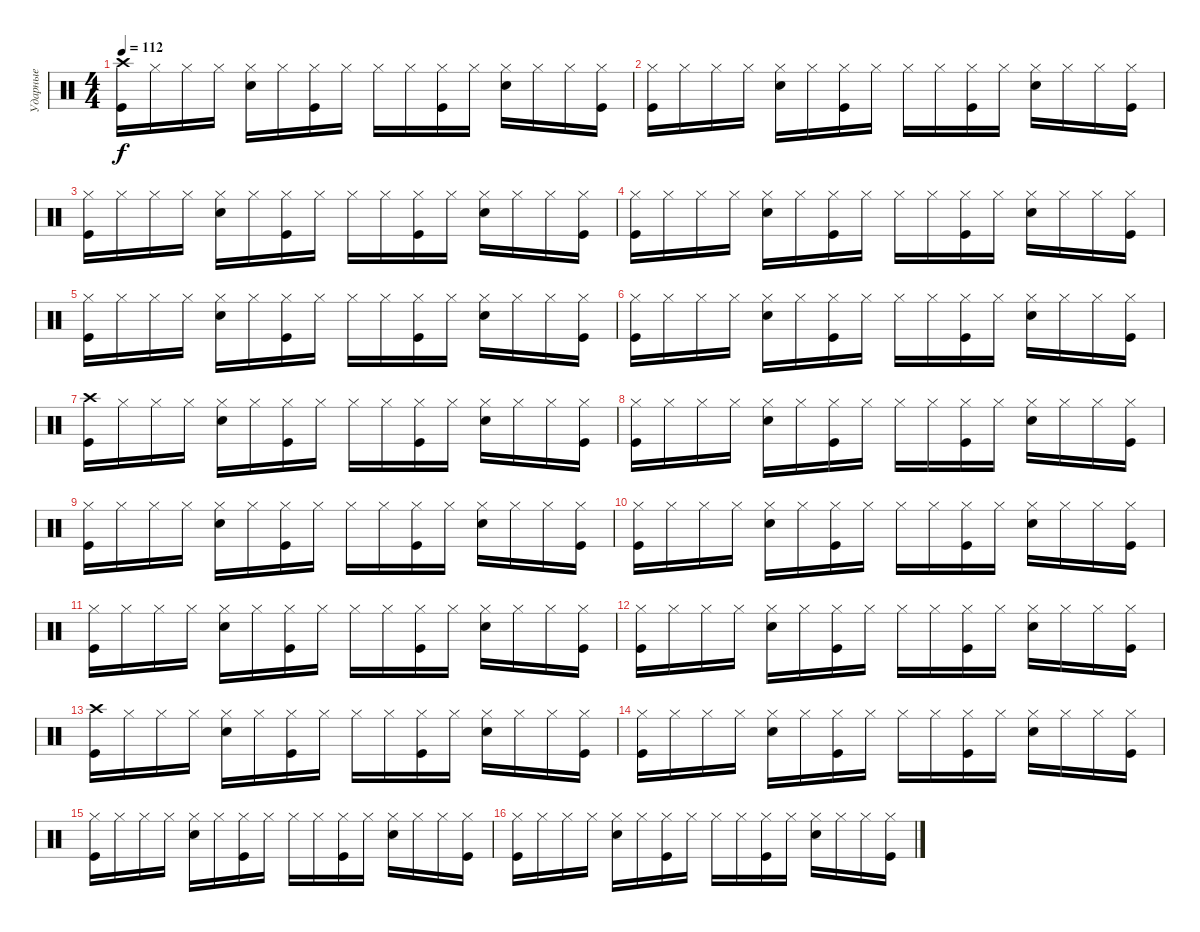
\track ("Ударные" "Ударные") {instrument percussion}
\staff {score}
\articulation defaults
\ts (4 4)
\tempo 112
\clef neutral
\ks c
("Crash high (hit)" "Kick (hit)").16{dy f} "Hi-Hat (closed)".16 "Hi-Hat (closed)".16 "Hi-Hat (closed)".16 ("Hi-Hat (closed)" "Electric Snare (hit)").16 "Hi-Hat (closed)".16 ("Hi-Hat (closed)" "Kick (hit)").16 "Hi-Hat (closed)".16 "Hi-Hat (closed)".16 "Hi-Hat (closed)".16 ("Hi-Hat (closed)" "Kick (hit)").16 "Hi-Hat (closed)".16 ("Hi-Hat (closed)" "Electric Snare (hit)").16 "Hi-Hat (closed)".16 "Hi-Hat (closed)".16 ("Hi-Hat (closed)" "Kick (hit)").16 |
("Hi-Hat (closed)" "Kick (hit)").16 "Hi-Hat (closed)".16 "Hi-Hat (closed)".16 "Hi-Hat (closed)".16 ("Hi-Hat (closed)" "Electric Snare (hit)").16 "Hi-Hat (closed)".16 ("Hi-Hat (closed)" "Kick (hit)").16 "Hi-Hat (closed)".16 "Hi-Hat (closed)".16 "Hi-Hat (closed)".16 ("Hi-Hat (closed)" "Kick (hit)").16 "Hi-Hat (closed)".16 ("Hi-Hat (closed)" "Electric Snare (hit)").16 "Hi-Hat (closed)".16 "Hi-Hat (closed)".16 ("Hi-Hat (closed)" "Kick (hit)").16 |
("Hi-Hat (closed)" "Kick (hit)").16 "Hi-Hat (closed)".16 "Hi-Hat (closed)".16 "Hi-Hat (closed)".16 ("Hi-Hat (closed)" "Electric Snare (hit)").16 "Hi-Hat (closed)".16 ("Hi-Hat (closed)" "Kick (hit)").16 "Hi-Hat (closed)".16 "Hi-Hat (closed)".16 "Hi-Hat (closed)".16 ("Hi-Hat (closed)" "Kick (hit)").16 "Hi-Hat (closed)".16 ("Hi-Hat (closed)" "Electric Snare (hit)").16 "Hi-Hat (closed)".16 "Hi-Hat (closed)".16 ("Hi-Hat (closed)" "Kick (hit)").16 |
("Hi-Hat (closed)" "Kick (hit)").16 "Hi-Hat (closed)".16 "Hi-Hat (closed)".16 "Hi-Hat (closed)".16 ("Hi-Hat (closed)" "Electric Snare (hit)").16 "Hi-Hat (closed)".16 ("Hi-Hat (closed)" "Kick (hit)").16 "Hi-Hat (closed)".16 "Hi-Hat (closed)".16 "Hi-Hat (closed)".16 ("Hi-Hat (closed)" "Kick (hit)").16 "Hi-Hat (closed)".16 ("Hi-Hat (closed)" "Electric Snare (hit)").16 "Hi-Hat (closed)".16 "Hi-Hat (closed)".16 ("Hi-Hat (closed)" "Kick (hit)").16 |
("Hi-Hat (closed)" "Kick (hit)").16 "Hi-Hat (closed)".16 "Hi-Hat (closed)".16 "Hi-Hat (closed)".16 ("Hi-Hat (closed)" "Electric Snare (hit)").16 "Hi-Hat (closed)".16 ("Hi-Hat (closed)" "Kick (hit)").16 "Hi-Hat (closed)".16 "Hi-Hat (closed)".16 "Hi-Hat (closed)".16 ("Hi-Hat (closed)" "Kick (hit)").16 "Hi-Hat (closed)".16 ("Hi-Hat (closed)" "Electric Snare (hit)").16 "Hi-Hat (closed)".16 "Hi-Hat (closed)".16 ("Hi-Hat (closed)" "Kick (hit)").16 |
("Hi-Hat (closed)" "Kick (hit)").16 "Hi-Hat (closed)".16 "Hi-Hat (closed)".16 "Hi-Hat (closed)".16 ("Hi-Hat (closed)" "Electric Snare (hit)").16 "Hi-Hat (closed)".16 ("Hi-Hat (closed)" "Kick (hit)").16 "Hi-Hat (closed)".16 "Hi-Hat (closed)".16 "Hi-Hat (closed)".16 ("Hi-Hat (closed)" "Kick (hit)").16 "Hi-Hat (closed)".16 ("Hi-Hat (closed)" "Electric Snare (hit)").16 "Hi-Hat (closed)".16 "Hi-Hat (closed)".16 ("Hi-Hat (closed)" "Kick (hit)").16 |
("Crash high (hit)" "Kick (hit)").16 "Hi-Hat (closed)".16 "Hi-Hat (closed)".16 "Hi-Hat (closed)".16 ("Hi-Hat (closed)" "Electric Snare (hit)").16 "Hi-Hat (closed)".16 ("Hi-Hat (closed)" "Kick (hit)").16 "Hi-Hat (closed)".16 "Hi-Hat (closed)".16 "Hi-Hat (closed)".16 ("Hi-Hat (closed)" "Kick (hit)").16 "Hi-Hat (closed)".16 ("Hi-Hat (closed)" "Electric Snare (hit)").16 "Hi-Hat (closed)".16 "Hi-Hat (closed)".16 ("Hi-Hat (closed)" "Kick (hit)").16 |
("Hi-Hat (closed)" "Kick (hit)").16 "Hi-Hat (closed)".16 "Hi-Hat (closed)".16 "Hi-Hat (closed)".16 ("Hi-Hat (closed)" "Electric Snare (hit)").16 "Hi-Hat (closed)".16 ("Hi-Hat (closed)" "Kick (hit)").16 "Hi-Hat (closed)".16 "Hi-Hat (closed)".16 "Hi-Hat (closed)".16 ("Hi-Hat (closed)" "Kick (hit)").16 "Hi-Hat (closed)".16 ("Hi-Hat (closed)" "Electric Snare (hit)").16 "Hi-Hat (closed)".16 "Hi-Hat (closed)".16 ("Hi-Hat (closed)" "Kick (hit)").16 |
("Hi-Hat (closed)" "Kick (hit)").16 "Hi-Hat (closed)".16 "Hi-Hat (closed)".16 "Hi-Hat (closed)".16 ("Hi-Hat (closed)" "Electric Snare (hit)").16 "Hi-Hat (closed)".16 ("Hi-Hat (closed)" "Kick (hit)").16 "Hi-Hat (closed)".16 "Hi-Hat (closed)".16 "Hi-Hat (closed)".16 ("Hi-Hat (closed)" "Kick (hit)").16 "Hi-Hat (closed)".16 ("Hi-Hat (closed)" "Electric Snare (hit)").16 "Hi-Hat (closed)".16 "Hi-Hat (closed)".16 ("Hi-Hat (closed)" "Kick (hit)").16 |
("Hi-Hat (closed)" "Kick (hit)").16 "Hi-Hat (closed)".16 "Hi-Hat (closed)".16 "Hi-Hat (closed)".16 ("Hi-Hat (closed)" "Electric Snare (hit)").16 "Hi-Hat (closed)".16 ("Hi-Hat (closed)" "Kick (hit)").16 "Hi-Hat (closed)".16 "Hi-Hat (closed)".16 "Hi-Hat (closed)".16 ("Hi-Hat (closed)" "Kick (hit)").16 "Hi-Hat (closed)".16 ("Hi-Hat (closed)" "Electric Snare (hit)").16 "Hi-Hat (closed)".16 "Hi-Hat (closed)".16 ("Hi-Hat (closed)" "Kick (hit)").16 |
("Hi-Hat (closed)" "Kick (hit)").16 "Hi-Hat (closed)".16 "Hi-Hat (closed)".16 "Hi-Hat (closed)".16 ("Hi-Hat (closed)" "Electric Snare (hit)").16 "Hi-Hat (closed)".16 ("Hi-Hat (closed)" "Kick (hit)").16 "Hi-Hat (closed)".16 "Hi-Hat (closed)".16 "Hi-Hat (closed)".16 ("Hi-Hat (closed)" "Kick (hit)").16 "Hi-Hat (closed)".16 ("Hi-Hat (closed)" "Electric Snare (hit)").16 "Hi-Hat (closed)".16 "Hi-Hat (closed)".16 ("Hi-Hat (closed)" "Kick (hit)").16 |
("Hi-Hat (closed)" "Kick (hit)").16 "Hi-Hat (closed)".16 "Hi-Hat (closed)".16 "Hi-Hat (closed)".16 ("Hi-Hat (closed)" "Electric Snare (hit)").16 "Hi-Hat (closed)".16 ("Hi-Hat (closed)" "Kick (hit)").16 "Hi-Hat (closed)".16 "Hi-Hat (closed)".16 "Hi-Hat (closed)".16 ("Hi-Hat (closed)" "Kick (hit)").16 "Hi-Hat (closed)".16 ("Hi-Hat (closed)" "Electric Snare (hit)").16 "Hi-Hat (closed)".16 "Hi-Hat (closed)".16 ("Hi-Hat (closed)" "Kick (hit)").16 |
("Crash high (hit)" "Kick (hit)").16 "Hi-Hat (closed)".16 "Hi-Hat (closed)".16 "Hi-Hat (closed)".16 ("Hi-Hat (closed)" "Electric Snare (hit)").16 "Hi-Hat (closed)".16 ("Hi-Hat (closed)" "Kick (hit)").16 "Hi-Hat (closed)".16 "Hi-Hat (closed)".16 "Hi-Hat (closed)".16 ("Hi-Hat (closed)" "Kick (hit)").16 "Hi-Hat (closed)".16 ("Hi-Hat (closed)" "Electric Snare (hit)").16 "Hi-Hat (closed)".16 "Hi-Hat (closed)".16 ("Hi-Hat (closed)" "Kick (hit)").16 |
("Hi-Hat (closed)" "Kick (hit)").16 "Hi-Hat (closed)".16 "Hi-Hat (closed)".16 "Hi-Hat (closed)".16 ("Hi-Hat (closed)" "Electric Snare (hit)").16 "Hi-Hat (closed)".16 ("Hi-Hat (closed)" "Kick (hit)").16 "Hi-Hat (closed)".16 "Hi-Hat (closed)".16 "Hi-Hat (closed)".16 ("Hi-Hat (closed)" "Kick (hit)").16 "Hi-Hat (closed)".16 ("Hi-Hat (closed)" "Electric Snare (hit)").16 "Hi-Hat (closed)".16 "Hi-Hat (closed)".16 ("Hi-Hat (closed)" "Kick (hit)").16 |
("Hi-Hat (closed)" "Kick (hit)").16 "Hi-Hat (closed)".16 "Hi-Hat (closed)".16 "Hi-Hat (closed)".16 ("Hi-Hat (closed)" "Electric Snare (hit)").16 "Hi-Hat (closed)".16 ("Hi-Hat (closed)" "Kick (hit)").16 "Hi-Hat (closed)".16 "Hi-Hat (closed)".16 "Hi-Hat (closed)".16 ("Hi-Hat (closed)" "Kick (hit)").16 "Hi-Hat (closed)".16 ("Hi-Hat (closed)" "Electric Snare (hit)").16 "Hi-Hat (closed)".16 "Hi-Hat (closed)".16 ("Hi-Hat (closed)" "Kick (hit)").16 |
("Hi-Hat (closed)" "Kick (hit)").16 "Hi-Hat (closed)".16 "Hi-Hat (closed)".16 "Hi-Hat (closed)".16 ("Hi-Hat (closed)" "Electric Snare (hit)").16 "Hi-Hat (closed)".16 ("Hi-Hat (closed)" "Kick (hit)").16 "Hi-Hat (closed)".16 "Hi-Hat (closed)".16 "Hi-Hat (closed)".16 ("Hi-Hat (closed)" "Kick (hit)").16 "Hi-Hat (closed)".16 ("Hi-Hat (closed)" "Electric Snare (hit)").16 "Hi-Hat (closed)".16 "Hi-Hat (closed)".16 ("Hi-Hat (closed)" "Kick (hit)").16
